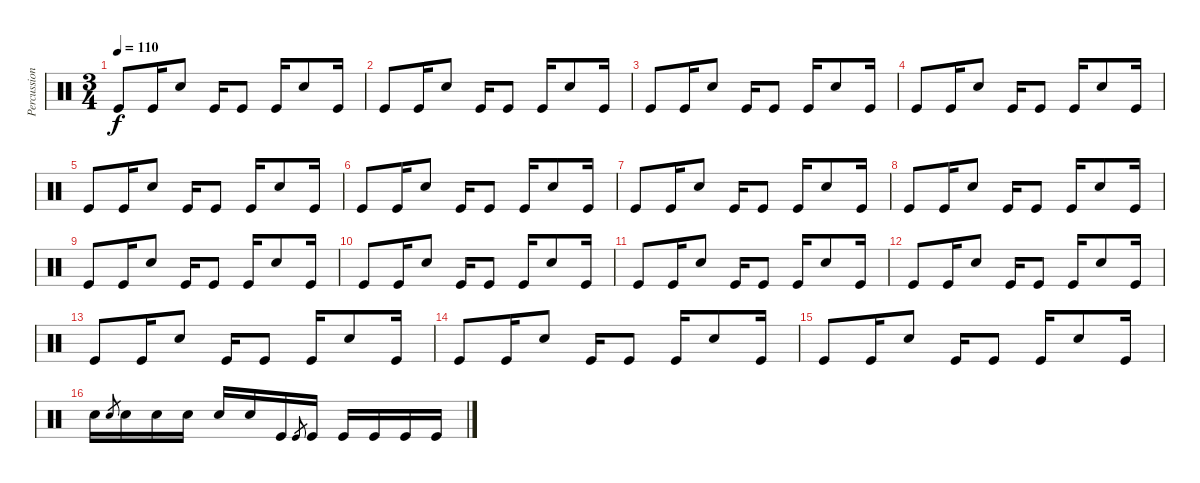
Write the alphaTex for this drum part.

\track ("Percussion" "Percussion") {instrument percussion}
\staff {score}
\articulation defaults
\ts (3 4)
\tempo 110
\clef neutral
\ks c "Kick (hit)".8{dy f} "Kick (hit)".16 "Snare (hit) 2".8 "Kick (hit)".16 "Kick (hit)".8 "Kick (hit)".16 "Snare (hit) 2".8 "Kick (hit)".16
|
"Kick (hit)".8 "Kick (hit)".16 "Snare (hit) 2".8 "Kick (hit)".16 "Kick (hit)".8 "Kick (hit)".16 "Snare (hit) 2".8 "Kick (hit)".16 |
"Kick (hit)".8 "Kick (hit)".16 "Snare (hit) 2".8 "Kick (hit)".16 "Kick (hit)".8 "Kick (hit)".16 "Snare (hit) 2".8 "Kick (hit)".16 |
"Kick (hit)".8 "Kick (hit)".16 "Snare (hit) 2".8 "Kick (hit)".16 "Kick (hit)".8 "Kick (hit)".16 "Snare (hit) 2".8 "Kick (hit)".16 |
"Kick (hit)".8 "Kick (hit)".16 "Snare (hit) 2".8 "Kick (hit)".16 "Kick (hit)".8 "Kick (hit)".16 "Snare (hit) 2".8 "Kick (hit)".16 |
"Kick (hit)".8 "Kick (hit)".16 "Snare (hit) 2".8 "Kick (hit)".16 "Kick (hit)".8 "Kick (hit)".16 "Snare (hit) 2".8 "Kick (hit)".16 |
"Kick (hit)".8 "Kick (hit)".16 "Snare (hit) 2".8 "Kick (hit)".16 "Kick (hit)".8 "Kick (hit)".16 "Snare (hit) 2".8 "Kick (hit)".16 |
"Kick (hit)".8 "Kick (hit)".16 "Snare (hit) 2".8 "Kick (hit)".16 "Kick (hit)".8 "Kick (hit)".16 "Snare (hit) 2".8 "Kick (hit)".16 |
"Kick (hit)".8 "Kick (hit)".16 "Snare (hit) 2".8 "Kick (hit)".16 "Kick (hit)".8 "Kick (hit)".16 "Snare (hit) 2".8 "Kick (hit)".16 |
"Kick (hit)".8 "Kick (hit)".16 "Snare (hit) 2".8 "Kick (hit)".16 "Kick (hit)".8 "Kick (hit)".16 "Snare (hit) 2".8 "Kick (hit)".16 |
"Kick (hit)".8 "Kick (hit)".16 "Snare (hit) 2".8 "Kick (hit)".16 "Kick (hit)".8 "Kick (hit)".16 "Snare (hit) 2".8 "Kick (hit)".16 |
"Kick (hit)".8 "Kick (hit)".16 "Snare (hit) 2".8 "Kick (hit)".16 "Kick (hit)".8 "Kick (hit)".16 "Snare (hit) 2".8 "Kick (hit)".16 |
"Kick (hit)".8 "Kick (hit)".16 "Snare (hit) 2".8 "Kick (hit)".16 "Kick (hit)".8 "Kick (hit)".16 "Snare (hit) 2".8 "Kick (hit)".16 |
"Kick (hit)".8 "Kick (hit)".16 "Snare (hit) 2".8 "Kick (hit)".16 "Kick (hit)".8 "Kick (hit)".16 "Snare (hit) 2".8 "Kick (hit)".16 |
"Kick (hit)".8 "Kick (hit)".16 "Snare (hit) 2".8 "Kick (hit)".16 "Kick (hit)".8 "Kick (hit)".16 "Snare (hit) 2".8 "Kick (hit)".16 |
"Snare (hit) 2".16 "Snare (hit) 2".8{gr} "Snare (hit) 2".16 "Snare (hit) 2".16 "Snare (hit) 2".16 "Snare (hit) 2".16 "Snare (hit) 2".16 "Kick (hit)".16 "Kick (hit)".8{gr} "Kick (hit)".16 "Kick (hit)".16 "Kick (hit)".16 "Kick (hit)".16 "Kick (hit)".16
